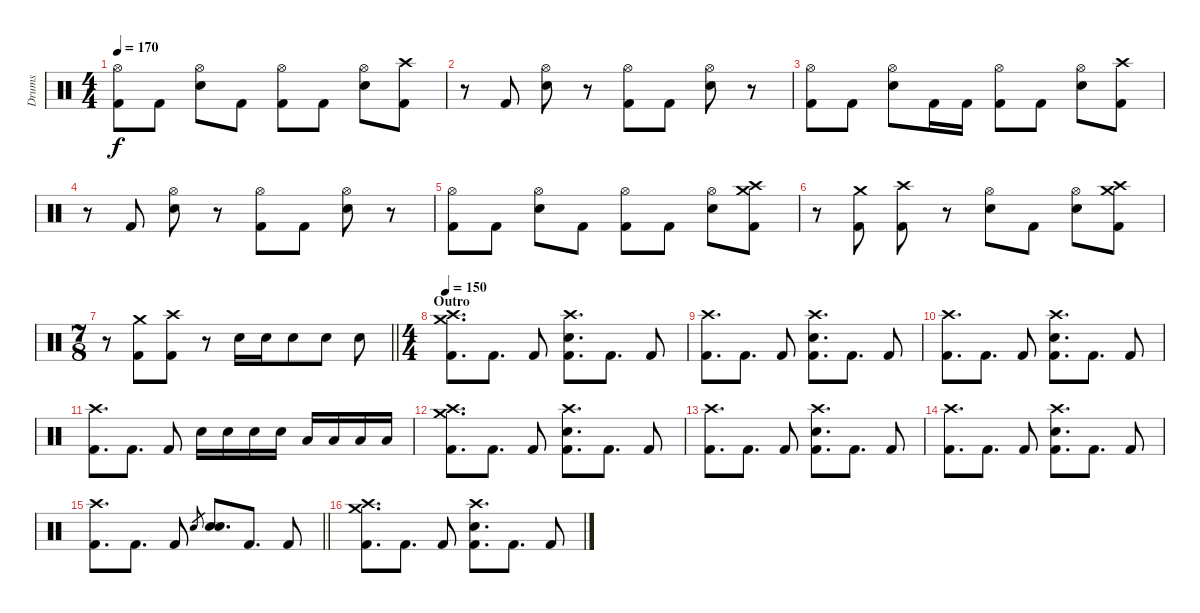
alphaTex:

\track ("Drums" "Drums") {instrument percussion}
\staff {score}
\articulation defaults
\ts (4 4)
\tempo 170
\clef neutral
\ks c
("Hi-Hat (open)" "Kick (hit) 2").8{dy f} "Kick (hit) 2".8 ("Hi-Hat (open)" "Snare (hit) 2").8 "Kick (hit) 2".8 ("Hi-Hat (open)" "Kick (hit) 2").8 "Kick (hit) 2".8 ("Hi-Hat (open)" "Snare (hit) 2").8 ("Crash high (hit)" "Kick (hit) 2").8 |
r.8 "Kick (hit) 2".8 ("Hi-Hat (open)" "Snare (hit) 2").8 r.8 ("Hi-Hat (open)" "Kick (hit) 2").8 "Kick (hit) 2".8 ("Hi-Hat (open)" "Snare (hit) 2").8 r.8 |
("Hi-Hat (open)" "Kick (hit) 2").8 "Kick (hit) 2".8 ("Hi-Hat (open)" "Snare (hit) 2").8 "Kick (hit) 2".16 "Kick (hit) 2".16 ("Hi-Hat (open)" "Kick (hit) 2").8 "Kick (hit) 2".8 ("Hi-Hat (open)" "Snare (hit) 2").8 ("Crash high (hit)" "Kick (hit) 2").8 |
r.8 "Kick (hit) 2".8 ("Hi-Hat (open)" "Snare (hit) 2").8 r.8 ("Hi-Hat (open)" "Kick (hit) 2").8 "Kick (hit) 2".8 ("Hi-Hat (open)" "Snare (hit) 2").8 r.8 |
("Hi-Hat (open)" "Kick (hit) 2").8 "Kick (hit) 2".8 ("Hi-Hat (open)" "Snare (hit) 2").8 "Kick (hit) 2".8 ("Hi-Hat (open)" "Kick (hit) 2").8 "Kick (hit) 2".8 ("Hi-Hat (open)" "Snare (hit) 2").8 ("Crash high (hit)" "Crash medium (hit)" "Kick (hit) 2").8 |
r.8 ("Crash medium (hit)" "Kick (hit) 2").8 ("Crash high (hit)" "Kick (hit) 2").8 r.8 ("Hi-Hat (open)" "Snare (hit) 2").8 "Kick (hit) 2".8 ("Hi-Hat (open)" "Snare (hit) 2").8 ("Crash high (hit)" "Crash medium (hit)" "Kick (hit) 2").8 |
\ts (7 8)
\barLineRight lightlight
r.8 ("Crash medium (hit)" "Kick (hit) 2").8 ("Crash high (hit)" "Kick (hit) 2").8 r.8 "Snare (hit) 2".16 "Snare (hit) 2".16 "Snare (hit) 2".8 "Snare (hit) 2".8 "Snare (hit) 2".8 |
\ts (4 4)
\section ("" "Outro")
\tempo 150
("Crash high (hit)" "Crash medium (hit)" "Kick (hit) 2").8{d} "Kick (hit) 2".8{d} "Kick (hit) 2".8 ("Crash high (hit)" "Snare (hit) 2" "Kick (hit) 2").8{d} "Kick (hit) 2".8{d} "Kick (hit) 2".8 |
("Crash high (hit)" "Kick (hit) 2").8{d} "Kick (hit) 2".8{d} "Kick (hit) 2".8 ("Crash high (hit)" "Snare (hit) 2" "Kick (hit) 2").8{d} "Kick (hit) 2".8{d} "Kick (hit) 2".8 |
("Crash high (hit)" "Kick (hit) 2").8{d} "Kick (hit) 2".8{d} "Kick (hit) 2".8 ("Crash high (hit)" "Snare (hit) 2" "Kick (hit) 2").8{d} "Kick (hit) 2".8{d} "Kick (hit) 2".8 |
("Crash high (hit)" "Kick (hit) 2").8{d} "Kick (hit) 2".8{d} "Kick (hit) 2".8 "Snare (hit) 2".16 "Snare (hit) 2".16 "Snare (hit) 2".16 "Snare (hit) 2".16 "Low Tom (hit)".16 "Low Tom (hit)".16 "Low Tom (hit)".16 "Low Tom (hit)".16 |
("Crash high (hit)" "Crash medium (hit)" "Kick (hit) 2").8{d} "Kick (hit) 2".8{d} "Kick (hit) 2".8 ("Crash high (hit)" "Snare (hit) 2" "Kick (hit) 2").8{d} "Kick (hit) 2".8{d} "Kick (hit) 2".8 |
("Crash high (hit)" "Kick (hit) 2").8{d} "Kick (hit) 2".8{d} "Kick (hit) 2".8 ("Crash high (hit)" "Snare (hit) 2" "Kick (hit) 2").8{d} "Kick (hit) 2".8{d} "Kick (hit) 2".8 |
("Crash high (hit)" "Kick (hit) 2").8{d} "Kick (hit) 2".8{d} "Kick (hit) 2".8 ("Crash high (hit)" "Snare (hit) 2" "Kick (hit) 2").8{d} "Kick (hit) 2".8{d} "Kick (hit) 2".8 |
\barLineRight lightlight
("Crash high (hit)" "Kick (hit) 2").8{d} "Kick (hit) 2".8{d} "Kick (hit) 2".8 "Snare (hit) 2".8{gr} ("Snare (hit) 2" "Snare (hit) 2").8{d} "Kick (hit) 2".8{d} "Kick (hit) 2".8 |
("Crash high (hit)" "Crash medium (hit)" "Kick (hit) 2").8{d} "Kick (hit) 2".8{d} "Kick (hit) 2".8 ("Crash high (hit)" "Snare (hit) 2" "Kick (hit) 2").8{d} "Kick (hit) 2".8{d} "Kick (hit) 2".8
